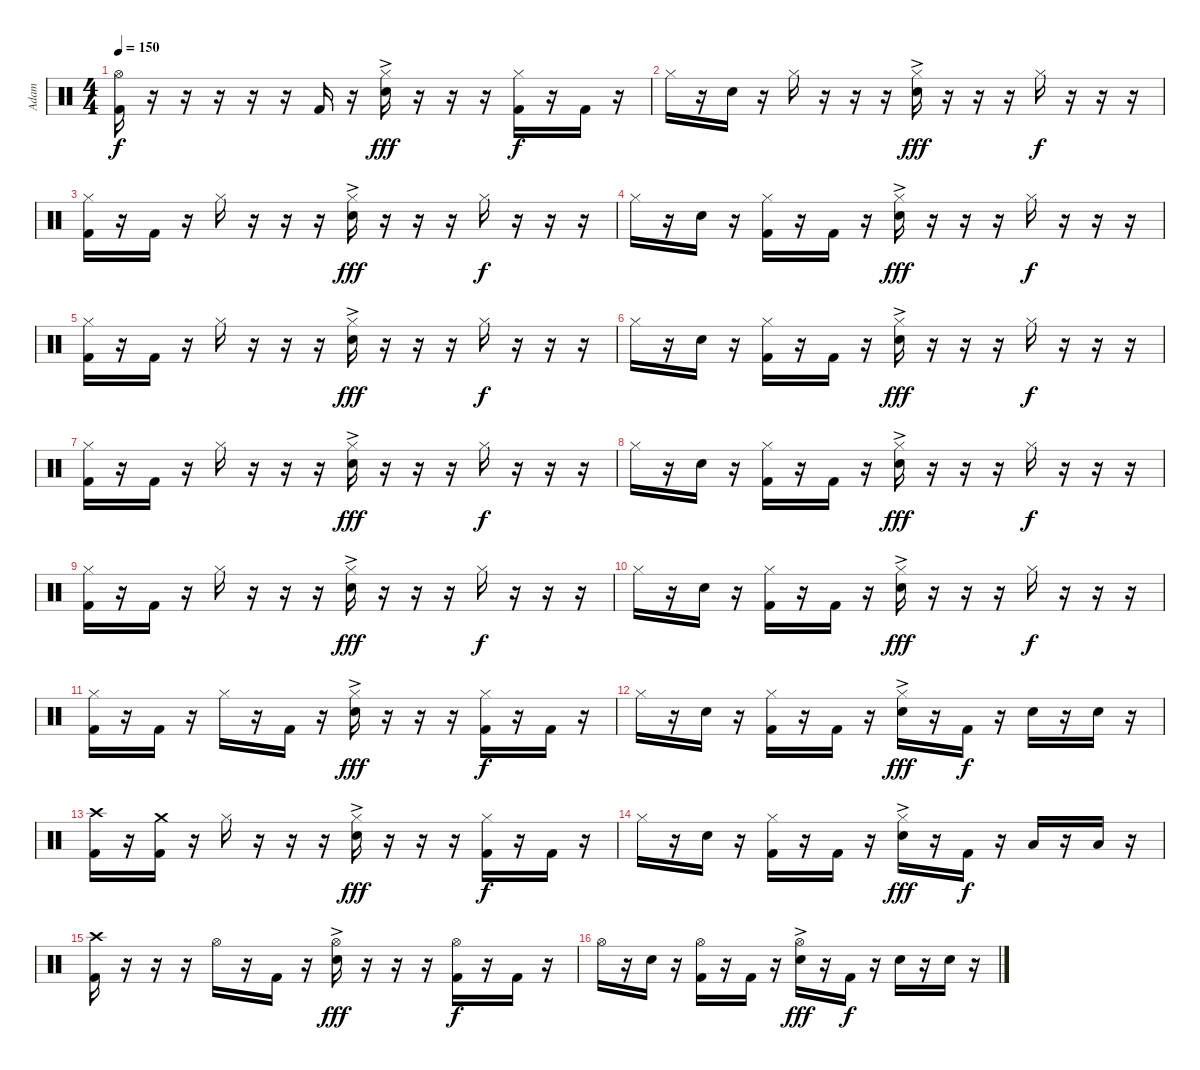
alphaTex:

\track ("Adam" "Adam") {instrument percussion}
\staff {score}
\articulation defaults
\ts (4 4)
\tempo 150
\clef neutral
\ks c
("Hi-Hat (open)" "Kick (hit) 2").16{dy f} r.16 r.16 r.16 r.16 r.16 "Kick (hit) 2".16 r.16 ("Hi-Hat (closed)" "Electric Snare (hit)"{ac}).16{dy fff} r.16 r.16 r.16 ("Hi-Hat (closed)" "Kick (hit) 2").16{dy f} r.16 "Kick (hit) 2".16 r.16 |
"Hi-Hat (closed)".16 r.16 "Electric Snare (hit)".16 r.16 "Hi-Hat (closed)".16 r.16 r.16 r.16 ("Hi-Hat (closed)" "Electric Snare (hit)"{ac}).16{dy fff} r.16 r.16 r.16 "Hi-Hat (closed)".16{dy f} r.16 r.16 r.16 |
("Hi-Hat (closed)" "Kick (hit) 2").16 r.16 "Kick (hit) 2".16 r.16 "Hi-Hat (closed)".16 r.16 r.16 r.16 ("Hi-Hat (closed)" "Electric Snare (hit)"{ac}).16{dy fff} r.16 r.16 r.16 "Hi-Hat (closed)".16{dy f} r.16 r.16 r.16 |
"Hi-Hat (closed)".16 r.16 "Electric Snare (hit)".16 r.16 ("Hi-Hat (closed)" "Kick (hit) 2").16 r.16 "Kick (hit) 2".16 r.16 ("Hi-Hat (closed)" "Electric Snare (hit)"{ac}).16{dy fff} r.16 r.16 r.16 "Hi-Hat (closed)".16{dy f} r.16 r.16 r.16 |
("Hi-Hat (closed)" "Kick (hit) 2").16 r.16 "Kick (hit) 2".16 r.16 "Hi-Hat (closed)".16 r.16 r.16 r.16 ("Hi-Hat (closed)" "Electric Snare (hit)"{ac}).16{dy fff} r.16 r.16 r.16 "Hi-Hat (closed)".16{dy f} r.16 r.16 r.16 |
"Hi-Hat (closed)".16 r.16 "Electric Snare (hit)".16 r.16 ("Hi-Hat (closed)" "Kick (hit) 2").16 r.16 "Kick (hit) 2".16 r.16 ("Hi-Hat (closed)" "Electric Snare (hit)"{ac}).16{dy fff} r.16 r.16 r.16 "Hi-Hat (closed)".16{dy f} r.16 r.16 r.16 |
("Hi-Hat (closed)" "Kick (hit) 2").16 r.16 "Kick (hit) 2".16 r.16 "Hi-Hat (closed)".16 r.16 r.16 r.16 ("Hi-Hat (closed)" "Electric Snare (hit)"{ac}).16{dy fff} r.16 r.16 r.16 "Hi-Hat (closed)".16{dy f} r.16 r.16 r.16 |
"Hi-Hat (closed)".16 r.16 "Electric Snare (hit)".16 r.16 ("Hi-Hat (closed)" "Kick (hit) 2").16 r.16 "Kick (hit) 2".16 r.16 ("Hi-Hat (closed)" "Electric Snare (hit)"{ac}).16{dy fff} r.16 r.16 r.16 "Hi-Hat (closed)".16{dy f} r.16 r.16 r.16 |
("Hi-Hat (closed)" "Kick (hit) 2").16 r.16 "Kick (hit) 2".16 r.16 "Hi-Hat (closed)".16 r.16 r.16 r.16 ("Hi-Hat (closed)" "Electric Snare (hit)"{ac}).16{dy fff} r.16 r.16 r.16 "Hi-Hat (closed)".16{dy f} r.16 r.16 r.16 |
"Hi-Hat (closed)".16 r.16 "Electric Snare (hit)".16 r.16 ("Hi-Hat (closed)" "Kick (hit) 2").16 r.16 "Kick (hit) 2".16 r.16 ("Hi-Hat (closed)" "Electric Snare (hit)"{ac}).16{dy fff} r.16 r.16 r.16 "Hi-Hat (closed)".16{dy f} r.16 r.16 r.16 |
("Hi-Hat (closed)" "Kick (hit) 2").16 r.16 "Kick (hit) 2".16 r.16 "Hi-Hat (closed)".16 r.16 "Kick (hit) 2".16 r.16 ("Hi-Hat (closed)" "Electric Snare (hit)"{ac}).16{dy fff} r.16 r.16 r.16 ("Hi-Hat (closed)" "Kick (hit) 2").16{dy f} r.16 "Kick (hit) 2".16 r.16 |
"Hi-Hat (closed)".16 r.16 "Electric Snare (hit)".16 r.16 ("Hi-Hat (closed)" "Kick (hit) 2").16 r.16 "Kick (hit) 2".16 r.16 ("Hi-Hat (closed)" "Electric Snare (hit)"{ac}).16{dy fff} r.16 "Kick (hit) 2".16{dy f} r.16 "Electric Snare (hit)".16 r.16 "Electric Snare (hit)".16 r.16 |
("Crash high (hit)" "Kick (hit) 2").16 r.16 ("Crash medium (hit)" "Kick (hit) 2").16 r.16 "Hi-Hat (closed)".16 r.16 r.16 r.16 ("Hi-Hat (closed)" "Electric Snare (hit)"{ac}).16{dy fff} r.16 r.16 r.16 ("Hi-Hat (closed)" "Kick (hit) 2").16{dy f} r.16 "Kick (hit) 2".16 r.16 |
"Hi-Hat (closed)".16 r.16 "Electric Snare (hit)".16 r.16 ("Hi-Hat (closed)" "Kick (hit) 2").16 r.16 "Kick (hit) 2".16 r.16 ("Hi-Hat (closed)" "Electric Snare (hit)"{ac}).16{dy fff} r.16 "Kick (hit) 2".16{dy f} r.16 "Low Tom (hit)".16 r.16 "Low Tom (hit)".16 r.16 |
("Crash high (hit)" "Kick (hit) 2").16 r.16 r.16 r.16 "Hi-Hat (open)".16 r.16 "Kick (hit) 2".16 r.16 ("Hi-Hat (open)" "Electric Snare (hit)"{ac}).16{dy fff} r.16 r.16 r.16 ("Hi-Hat (open)" "Kick (hit) 2").16{dy f} r.16 "Kick (hit) 2".16 r.16 |
"Hi-Hat (open)".16 r.16 "Electric Snare (hit)".16 r.16 ("Hi-Hat (open)" "Kick (hit) 2").16 r.16 "Kick (hit) 2".16 r.16 ("Hi-Hat (open)" "Electric Snare (hit)"{ac}).16{dy fff} r.16 "Kick (hit) 2".16{dy f} r.16 "Electric Snare (hit)".16 r.16 "Electric Snare (hit)".16 r.16
